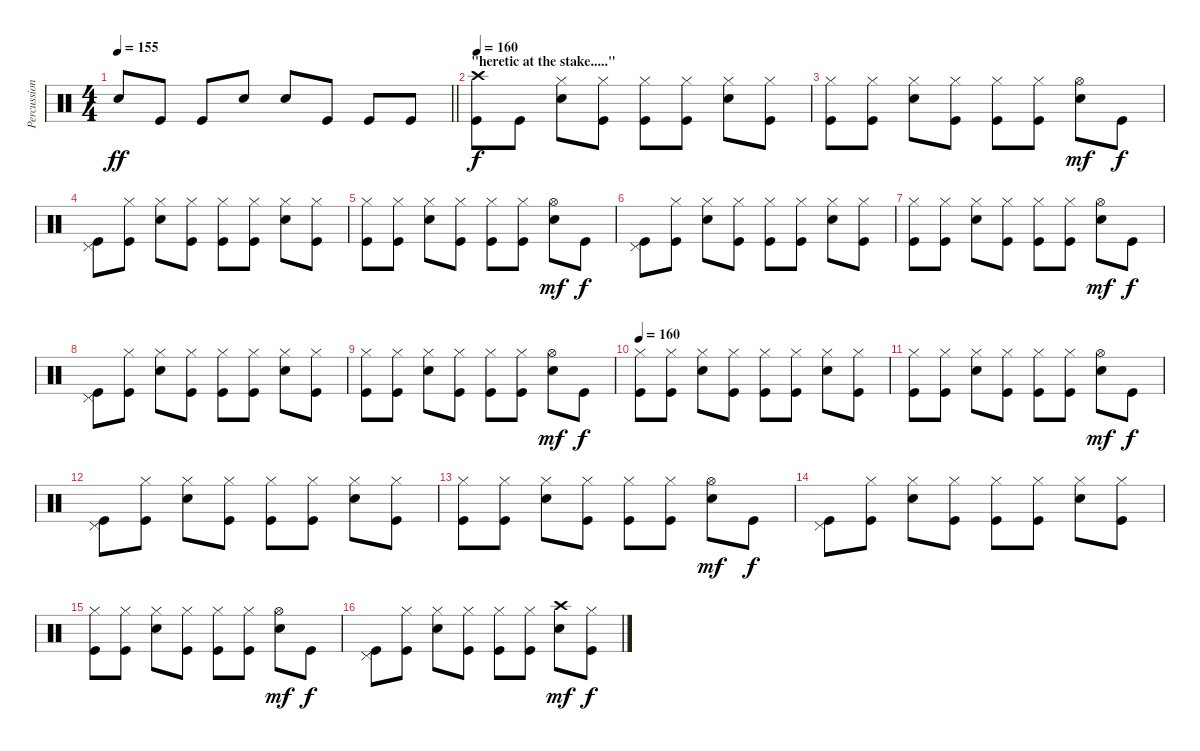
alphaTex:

\track ("Percussion" "Percussion") {instrument percussion}
\staff {score}
\articulation defaults
\ts (4 4)
\tempo 155
\clef neutral
\barLineRight lightlight
\ks c "Snare (hit) 2".8{dy ff} "Kick (hit)".8 "Kick (hit)".8 "Snare (hit) 2".8 "Snare (hit) 2".8 "Kick (hit)".8 "Kick (hit)".8 "Kick (hit)".8
|
\section ("" "\"heretic at the stake.....\"")
\tempo 160
("Crash high (hit)" "Kick (hit)").8{dy f} "Kick (hit)".8 ("Hi-Hat (closed)" "Snare (hit) 2").8 ("Hi-Hat (closed)" "Kick (hit)").8 ("Hi-Hat (closed)" "Kick (hit)").8 ("Hi-Hat (closed)" "Kick (hit)").8 ("Hi-Hat (closed)" "Snare (hit) 2").8 ("Hi-Hat (closed)" "Kick (hit)").8 |
("Hi-Hat (closed)" "Kick (hit)").8 ("Hi-Hat (closed)" "Kick (hit)").8 ("Hi-Hat (closed)" "Snare (hit) 2").8 ("Hi-Hat (closed)" "Kick (hit)").8 ("Hi-Hat (closed)" "Kick (hit)").8 ("Hi-Hat (closed)" "Kick (hit)").8 ("Hi-Hat (open)" "Snare (hit) 2").8{dy mf} "Kick (hit)".8{dy f} |
("Pedal Hi-Hat (hit)" "Kick (hit)").8 ("Hi-Hat (closed)" "Kick (hit)").8 ("Hi-Hat (closed)" "Snare (hit) 2").8 ("Hi-Hat (closed)" "Kick (hit)").8 ("Hi-Hat (closed)" "Kick (hit)").8 ("Hi-Hat (closed)" "Kick (hit)").8 ("Hi-Hat (closed)" "Snare (hit) 2").8 ("Hi-Hat (closed)" "Kick (hit)").8 |
("Hi-Hat (closed)" "Kick (hit)").8 ("Hi-Hat (closed)" "Kick (hit)").8 ("Hi-Hat (closed)" "Snare (hit) 2").8 ("Hi-Hat (closed)" "Kick (hit)").8 ("Hi-Hat (closed)" "Kick (hit)").8 ("Hi-Hat (closed)" "Kick (hit)").8 ("Hi-Hat (open)" "Snare (hit) 2").8{dy mf} "Kick (hit)".8{dy f} |
("Pedal Hi-Hat (hit)" "Kick (hit)").8 ("Hi-Hat (closed)" "Kick (hit)").8 ("Hi-Hat (closed)" "Snare (hit) 2").8 ("Hi-Hat (closed)" "Kick (hit)").8 ("Hi-Hat (closed)" "Kick (hit)").8 ("Hi-Hat (closed)" "Kick (hit)").8 ("Hi-Hat (closed)" "Snare (hit) 2").8 ("Hi-Hat (closed)" "Kick (hit)").8 |
("Hi-Hat (closed)" "Kick (hit)").8 ("Hi-Hat (closed)" "Kick (hit)").8 ("Hi-Hat (closed)" "Snare (hit) 2").8 ("Hi-Hat (closed)" "Kick (hit)").8 ("Hi-Hat (closed)" "Kick (hit)").8 ("Hi-Hat (closed)" "Kick (hit)").8 ("Hi-Hat (open)" "Snare (hit) 2").8{dy mf} "Kick (hit)".8{dy f} |
("Pedal Hi-Hat (hit)" "Kick (hit)").8 ("Hi-Hat (closed)" "Kick (hit)").8 ("Hi-Hat (closed)" "Snare (hit) 2").8 ("Hi-Hat (closed)" "Kick (hit)").8 ("Hi-Hat (closed)" "Kick (hit)").8 ("Hi-Hat (closed)" "Kick (hit)").8 ("Hi-Hat (closed)" "Snare (hit) 2").8 ("Hi-Hat (closed)" "Kick (hit)").8 |
("Hi-Hat (closed)" "Kick (hit)").8 ("Hi-Hat (closed)" "Kick (hit)").8 ("Hi-Hat (closed)" "Snare (hit) 2").8 ("Hi-Hat (closed)" "Kick (hit)").8 ("Hi-Hat (closed)" "Kick (hit)").8 ("Hi-Hat (closed)" "Kick (hit)").8 ("Hi-Hat (open)" "Snare (hit) 2").8{dy mf} "Kick (hit)".8{dy f} |
\tempo 160
("Hi-Hat (closed)" "Kick (hit)").8 ("Hi-Hat (closed)" "Kick (hit)").8 ("Hi-Hat (closed)" "Snare (hit) 2").8 ("Hi-Hat (closed)" "Kick (hit)").8 ("Hi-Hat (closed)" "Kick (hit)").8 ("Hi-Hat (closed)" "Kick (hit)").8 ("Hi-Hat (closed)" "Snare (hit) 2").8 ("Hi-Hat (closed)" "Kick (hit)").8 |
("Hi-Hat (closed)" "Kick (hit)").8 ("Hi-Hat (closed)" "Kick (hit)").8 ("Hi-Hat (closed)" "Snare (hit) 2").8 ("Hi-Hat (closed)" "Kick (hit)").8 ("Hi-Hat (closed)" "Kick (hit)").8 ("Hi-Hat (closed)" "Kick (hit)").8 ("Hi-Hat (open)" "Snare (hit) 2").8{dy mf} "Kick (hit)".8{dy f} |
("Pedal Hi-Hat (hit)" "Kick (hit)").8 ("Hi-Hat (closed)" "Kick (hit)").8 ("Hi-Hat (closed)" "Snare (hit) 2").8 ("Hi-Hat (closed)" "Kick (hit)").8 ("Hi-Hat (closed)" "Kick (hit)").8 ("Hi-Hat (closed)" "Kick (hit)").8 ("Hi-Hat (closed)" "Snare (hit) 2").8 ("Hi-Hat (closed)" "Kick (hit)").8 |
("Hi-Hat (closed)" "Kick (hit)").8 ("Hi-Hat (closed)" "Kick (hit)").8 ("Hi-Hat (closed)" "Snare (hit) 2").8 ("Hi-Hat (closed)" "Kick (hit)").8 ("Hi-Hat (closed)" "Kick (hit)").8 ("Hi-Hat (closed)" "Kick (hit)").8 ("Hi-Hat (open)" "Snare (hit) 2").8{dy mf} "Kick (hit)".8{dy f} |
("Pedal Hi-Hat (hit)" "Kick (hit)").8 ("Hi-Hat (closed)" "Kick (hit)").8 ("Hi-Hat (closed)" "Snare (hit) 2").8 ("Hi-Hat (closed)" "Kick (hit)").8 ("Hi-Hat (closed)" "Kick (hit)").8 ("Hi-Hat (closed)" "Kick (hit)").8 ("Hi-Hat (closed)" "Snare (hit) 2").8 ("Hi-Hat (closed)" "Kick (hit)").8 |
("Hi-Hat (closed)" "Kick (hit)").8 ("Hi-Hat (closed)" "Kick (hit)").8 ("Hi-Hat (closed)" "Snare (hit) 2").8 ("Hi-Hat (closed)" "Kick (hit)").8 ("Hi-Hat (closed)" "Kick (hit)").8 ("Hi-Hat (closed)" "Kick (hit)").8 ("Hi-Hat (open)" "Snare (hit) 2").8{dy mf} "Kick (hit)".8{dy f} |
("Pedal Hi-Hat (hit)" "Kick (hit)").8 ("Hi-Hat (closed)" "Kick (hit)").8 ("Hi-Hat (closed)" "Snare (hit) 2").8 ("Hi-Hat (closed)" "Kick (hit)").8 ("Hi-Hat (closed)" "Kick (hit)").8 ("Hi-Hat (closed)" "Kick (hit)").8 ("Crash high (hit)" "Snare (hit) 2").8{dy mf} ("Hi-Hat (closed)" "Kick (hit)").8{dy f}
